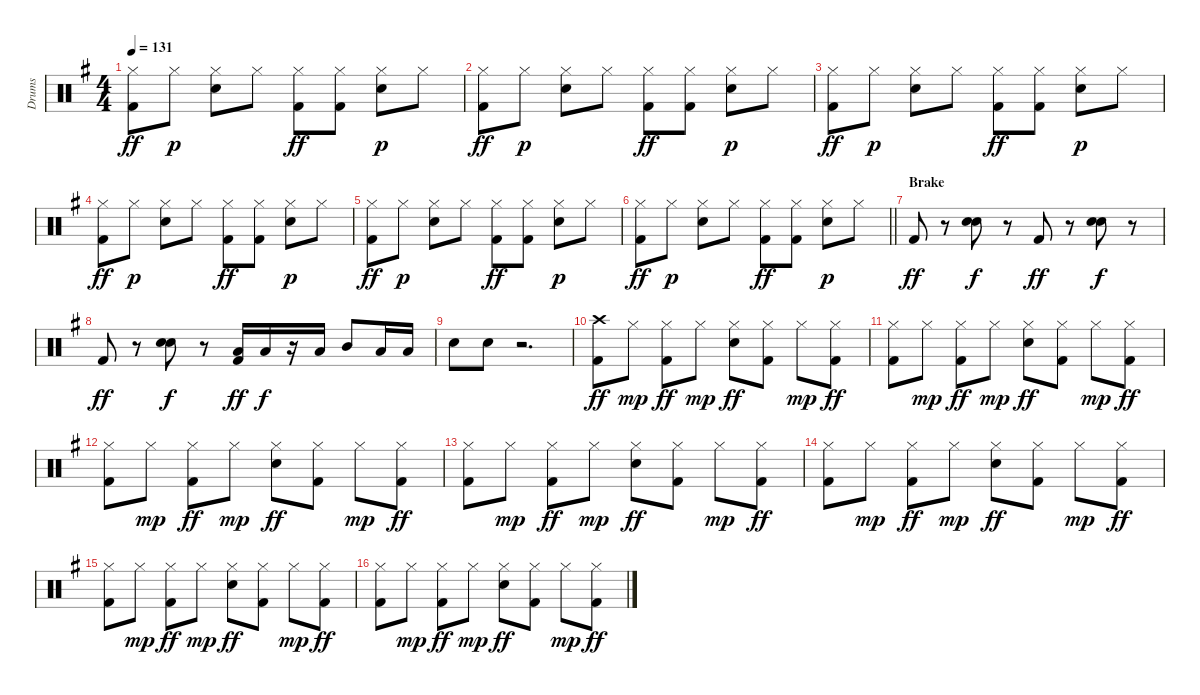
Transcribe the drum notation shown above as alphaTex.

\track ("Drums" "Drums") {instrument percussion}
\staff {score}
\articulation defaults
\ts (4 4)
\tempo 131
\clef neutral
\ks g
("Hi-Hat (closed)" "Kick (hit) 2").8{dy ff} "Hi-Hat (closed)".8{dy p} ("Hi-Hat (closed)" "Snare (hit) 2").8 "Hi-Hat (closed)".8 ("Hi-Hat (closed)" "Kick (hit) 2").8{dy ff} ("Hi-Hat (closed)" "Kick (hit) 2").8 ("Hi-Hat (closed)" "Snare (hit) 2").8{dy p} "Hi-Hat (closed)".8 |
("Hi-Hat (closed)" "Kick (hit) 2").8{dy ff} "Hi-Hat (closed)".8{dy p} ("Hi-Hat (closed)" "Snare (hit) 2").8 "Hi-Hat (closed)".8 ("Hi-Hat (closed)" "Kick (hit) 2").8{dy ff} ("Hi-Hat (closed)" "Kick (hit) 2").8 ("Hi-Hat (closed)" "Snare (hit) 2").8{dy p} "Hi-Hat (closed)".8 |
("Hi-Hat (closed)" "Kick (hit) 2").8{dy ff} "Hi-Hat (closed)".8{dy p} ("Hi-Hat (closed)" "Snare (hit) 2").8 "Hi-Hat (closed)".8 ("Hi-Hat (closed)" "Kick (hit) 2").8{dy ff} ("Hi-Hat (closed)" "Kick (hit) 2").8 ("Hi-Hat (closed)" "Snare (hit) 2").8{dy p} "Hi-Hat (closed)".8 |
("Hi-Hat (closed)" "Kick (hit) 2").8{dy ff} "Hi-Hat (closed)".8{dy p} ("Hi-Hat (closed)" "Snare (hit) 2").8 "Hi-Hat (closed)".8 ("Hi-Hat (closed)" "Kick (hit) 2").8{dy ff} ("Hi-Hat (closed)" "Kick (hit) 2").8 ("Hi-Hat (closed)" "Snare (hit) 2").8{dy p} "Hi-Hat (closed)".8 |
("Hi-Hat (closed)" "Kick (hit) 2").8{dy ff} "Hi-Hat (closed)".8{dy p} ("Hi-Hat (closed)" "Snare (hit) 2").8 "Hi-Hat (closed)".8 ("Hi-Hat (closed)" "Kick (hit) 2").8{dy ff} ("Hi-Hat (closed)" "Kick (hit) 2").8 ("Hi-Hat (closed)" "Snare (hit) 2").8{dy p} "Hi-Hat (closed)".8 |
\barLineRight lightlight
("Hi-Hat (closed)" "Kick (hit) 2").8{dy ff} "Hi-Hat (closed)".8{dy p} ("Hi-Hat (closed)" "Snare (hit) 2").8 "Hi-Hat (closed)".8 ("Hi-Hat (closed)" "Kick (hit) 2").8{dy ff} ("Hi-Hat (closed)" "Kick (hit) 2").8 ("Hi-Hat (closed)" "Snare (hit) 2").8{dy p} "Hi-Hat (closed)".8 |
\section ("" "Brake")
"Kick (hit) 2".8{dy ff} r.8 ("Snare (hit) 2" "Snare (hit) 2").8{dy f} r.8 "Kick (hit) 2".8{dy ff} r.8 ("Snare (hit) 2" "Snare (hit) 2").8{dy f} r.8 |
"Kick (hit) 2".8{dy ff} r.8 ("Snare (hit) 2" "Snare (hit) 2").8{dy f} r.8 ("Low Tom (hit)" "Kick (hit) 2").16{dy ff} "Low Tom (hit)".16{dy f} r.16 "Low Tom (hit)".16 "Mid Tom (hit)".8 "Low Tom (hit)".16 "Low Tom (hit)".16 |
"Snare (hit) 2".8 "Snare (hit) 2".8 r.2{d} |
("Crash high (hit)" "Kick (hit) 2").8{dy ff} "Hi-Hat (closed)".8{dy mp} ("Hi-Hat (closed)" "Kick (hit) 2").8{dy ff} "Hi-Hat (closed)".8{dy mp} ("Hi-Hat (closed)" "Snare (hit) 2").8{dy ff} ("Hi-Hat (closed)" "Kick (hit) 2").8 "Hi-Hat (closed)".8{dy mp} ("Hi-Hat (closed)" "Kick (hit) 2").8{dy ff} |
("Hi-Hat (closed)" "Kick (hit) 2").8 "Hi-Hat (closed)".8{dy mp} ("Hi-Hat (closed)" "Kick (hit) 2").8{dy ff} "Hi-Hat (closed)".8{dy mp} ("Hi-Hat (closed)" "Snare (hit) 2").8{dy ff} ("Hi-Hat (closed)" "Kick (hit) 2").8 "Hi-Hat (closed)".8{dy mp} ("Hi-Hat (closed)" "Kick (hit) 2").8{dy ff} |
("Hi-Hat (closed)" "Kick (hit) 2").8 "Hi-Hat (closed)".8{dy mp} ("Hi-Hat (closed)" "Kick (hit) 2").8{dy ff} "Hi-Hat (closed)".8{dy mp} ("Hi-Hat (closed)" "Snare (hit) 2").8{dy ff} ("Hi-Hat (closed)" "Kick (hit) 2").8 "Hi-Hat (closed)".8{dy mp} ("Hi-Hat (closed)" "Kick (hit) 2").8{dy ff} |
("Hi-Hat (closed)" "Kick (hit) 2").8 "Hi-Hat (closed)".8{dy mp} ("Hi-Hat (closed)" "Kick (hit) 2").8{dy ff} "Hi-Hat (closed)".8{dy mp} ("Hi-Hat (closed)" "Snare (hit) 2").8{dy ff} ("Hi-Hat (closed)" "Kick (hit) 2").8 "Hi-Hat (closed)".8{dy mp} ("Hi-Hat (closed)" "Kick (hit) 2").8{dy ff} |
("Hi-Hat (closed)" "Kick (hit) 2").8 "Hi-Hat (closed)".8{dy mp} ("Hi-Hat (closed)" "Kick (hit) 2").8{dy ff} "Hi-Hat (closed)".8{dy mp} ("Hi-Hat (closed)" "Snare (hit) 2").8{dy ff} ("Hi-Hat (closed)" "Kick (hit) 2").8 "Hi-Hat (closed)".8{dy mp} ("Hi-Hat (closed)" "Kick (hit) 2").8{dy ff} |
("Hi-Hat (closed)" "Kick (hit) 2").8 "Hi-Hat (closed)".8{dy mp} ("Hi-Hat (closed)" "Kick (hit) 2").8{dy ff} "Hi-Hat (closed)".8{dy mp} ("Hi-Hat (closed)" "Snare (hit) 2").8{dy ff} ("Hi-Hat (closed)" "Kick (hit) 2").8 "Hi-Hat (closed)".8{dy mp} ("Hi-Hat (closed)" "Kick (hit) 2").8{dy ff} |
("Hi-Hat (closed)" "Kick (hit) 2").8 "Hi-Hat (closed)".8{dy mp} ("Hi-Hat (closed)" "Kick (hit) 2").8{dy ff} "Hi-Hat (closed)".8{dy mp} ("Hi-Hat (closed)" "Snare (hit) 2").8{dy ff} ("Hi-Hat (closed)" "Kick (hit) 2").8 "Hi-Hat (closed)".8{dy mp} ("Hi-Hat (closed)" "Kick (hit) 2").8{dy ff}
